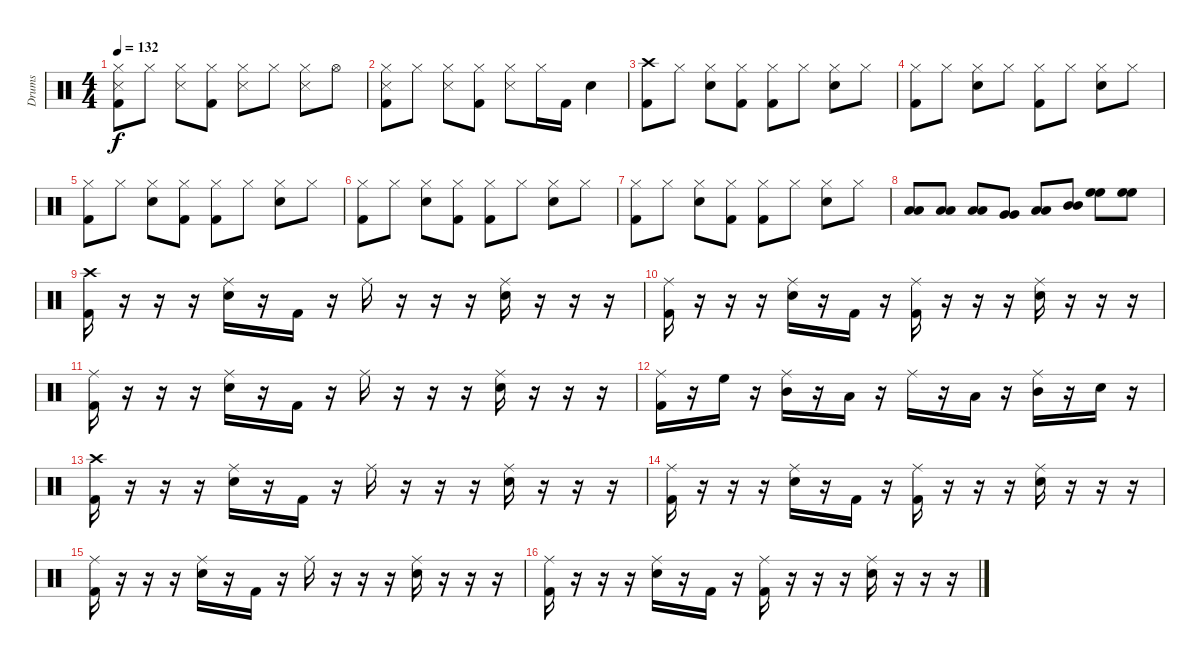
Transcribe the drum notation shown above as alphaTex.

\track ("Drums" "Drums") {instrument percussion}
\staff {score}
\articulation defaults
\ts (4 4)
\tempo 132
\clef neutral
\ks c
("Hi-Hat (closed)" "Snare (side stick) 3" "Kick (hit) 2").8{dy f} "Hi-Hat (closed)".8 ("Hi-Hat (closed)" "Snare (side stick) 3").8 ("Hi-Hat (closed)" "Kick (hit) 2").8 ("Hi-Hat (closed)" "Snare (side stick) 3").8 "Hi-Hat (closed)".8 ("Hi-Hat (closed)" "Snare (side stick) 3").8 "Hi-Hat (open)".8 |
("Hi-Hat (closed)" "Snare (side stick) 3" "Kick (hit) 2").8 "Hi-Hat (closed)".8 ("Hi-Hat (closed)" "Snare (side stick) 3").8 ("Hi-Hat (closed)" "Kick (hit) 2").8 ("Hi-Hat (closed)" "Snare (side stick) 3").8 "Hi-Hat (closed)".16 "Kick (hit) 2".16 "Snare (hit) 2".4 |
("Crash high (hit)" "Kick (hit) 2").8 "Hi-Hat (closed)".8 ("Hi-Hat (closed)" "Snare (hit) 2").8 ("Hi-Hat (closed)" "Kick (hit) 2").8 ("Hi-Hat (closed)" "Kick (hit) 2").8 "Hi-Hat (closed)".8 ("Hi-Hat (closed)" "Snare (hit) 2").8 "Hi-Hat (closed)".8 |
("Hi-Hat (closed)" "Kick (hit) 2").8 "Hi-Hat (closed)".8 ("Hi-Hat (closed)" "Snare (hit) 2").8 "Hi-Hat (closed)".8 ("Hi-Hat (closed)" "Kick (hit) 2").8 "Hi-Hat (closed)".8 ("Hi-Hat (closed)" "Snare (hit) 2").8 "Hi-Hat (closed)".8 |
("Hi-Hat (closed)" "Kick (hit) 2").8 "Hi-Hat (closed)".8 ("Hi-Hat (closed)" "Snare (hit) 2").8 ("Hi-Hat (closed)" "Kick (hit) 2").8 ("Hi-Hat (closed)" "Kick (hit) 2").8 "Hi-Hat (closed)".8 ("Hi-Hat (closed)" "Snare (hit) 2").8 "Hi-Hat (closed)".8 |
("Hi-Hat (closed)" "Kick (hit) 2").8 "Hi-Hat (closed)".8 ("Hi-Hat (closed)" "Snare (hit) 2").8 ("Hi-Hat (closed)" "Kick (hit) 2").8 ("Hi-Hat (closed)" "Kick (hit) 2").8 "Hi-Hat (closed)".8 ("Hi-Hat (closed)" "Snare (hit) 2").8 "Hi-Hat (closed)".8 |
("Hi-Hat (closed)" "Kick (hit) 2").8 "Hi-Hat (closed)".8 ("Hi-Hat (closed)" "Snare (hit) 2").8 ("Hi-Hat (closed)" "Kick (hit) 2").8 ("Hi-Hat (closed)" "Kick (hit) 2").8 "Hi-Hat (closed)".8 ("Hi-Hat (closed)" "Snare (hit) 2").8 "Hi-Hat (closed)".8 |
("Low Floor Tom (hit)" "Low Floor Tom (hit)").8 ("Low Floor Tom (hit)" "Low Floor Tom (hit)").8 ("Low Floor Tom (hit)" "Low Floor Tom (hit)").8 ("Very Low Tom (hit)" "Very Low Tom (hit)").8 ("Low Tom (hit)" "Low Tom (hit)").8 ("Mid Tom (hit)" "Mid Tom (hit)").8 ("High Floor Tom (hit)" "High Floor Tom (hit)").8 ("High Floor Tom (hit)" "High Floor Tom (hit)").8 |
("Crash high (hit)" "Kick (hit) 2").16 r.16 r.16 r.16 ("Ride (middle)" "Snare (hit) 2").16 r.16 "Kick (hit) 2".16 r.16 "Ride (middle)".16 r.16 r.16 r.16 ("Ride (middle)" "Snare (hit) 2").16 r.16 r.16 r.16 |
("Ride (middle)" "Kick (hit) 2").16 r.16 r.16 r.16 ("Ride (middle)" "Snare (hit) 2").16 r.16 "Kick (hit) 2".16 r.16 ("Ride (middle)" "Kick (hit) 2").16 r.16 r.16 r.16 ("Ride (middle)" "Snare (hit) 2").16 r.16 r.16 r.16 |
("Ride (middle)" "Kick (hit) 2").16 r.16 r.16 r.16 ("Ride (middle)" "Snare (hit) 2").16 r.16 "Kick (hit) 2".16 r.16 "Ride (middle)".16 r.16 r.16 r.16 ("Ride (middle)" "Snare (hit) 2").16 r.16 r.16 r.16 |
("Ride (middle)" "Kick (hit) 2").16 r.16 "High Floor Tom (hit)".16 r.16 ("Ride (middle)" "Mid Tom (hit)").16 r.16 "Low Tom (hit)".16 r.16 "Ride (middle)".16 r.16 "Low Tom (hit)".16 r.16 ("Ride (middle)" "Mid Tom (hit)").16 r.16 "Snare (hit) 2".16 r.16 |
("Crash high (hit)" "Kick (hit) 2").16 r.16 r.16 r.16 ("Ride (middle)" "Snare (hit) 2").16 r.16 "Kick (hit) 2".16 r.16 "Ride (middle)".16 r.16 r.16 r.16 ("Ride (middle)" "Snare (hit) 2").16 r.16 r.16 r.16 |
("Ride (middle)" "Kick (hit) 2").16 r.16 r.16 r.16 ("Ride (middle)" "Snare (hit) 2").16 r.16 "Kick (hit) 2".16 r.16 ("Ride (middle)" "Kick (hit) 2").16 r.16 r.16 r.16 ("Ride (middle)" "Snare (hit) 2").16 r.16 r.16 r.16 |
("Ride (middle)" "Kick (hit) 2").16 r.16 r.16 r.16 ("Ride (middle)" "Snare (hit) 2").16 r.16 "Kick (hit) 2".16 r.16 "Ride (middle)".16 r.16 r.16 r.16 ("Ride (middle)" "Snare (hit) 2").16 r.16 r.16 r.16 |
("Ride (middle)" "Kick (hit) 2").16 r.16 r.16 r.16 ("Ride (middle)" "Snare (hit) 2").16 r.16 "Kick (hit) 2".16 r.16 ("Ride (middle)" "Kick (hit) 2").16 r.16 r.16 r.16 ("Ride (middle)" "Snare (hit) 2").16 r.16 r.16 r.16
